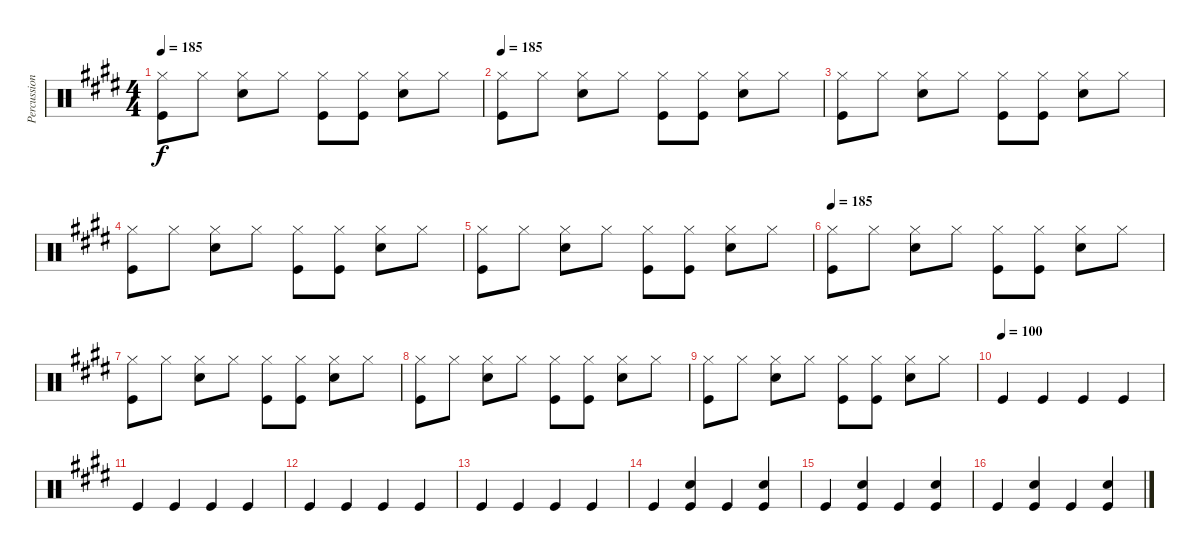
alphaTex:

\track ("Percussion" "Percussion") {instrument percussion}
\staff {score}
\articulation defaults
\ts (4 4)
\tempo 185
\clef neutral
\ks e
("Hi-Hat (closed)" "Kick (hit)").8{dy f} "Hi-Hat (closed)".8 ("Hi-Hat (closed)" "Snare (hit) 2").8 "Hi-Hat (closed)".8 ("Hi-Hat (closed)" "Kick (hit)").8 ("Hi-Hat (closed)" "Kick (hit)").8 ("Hi-Hat (closed)" "Snare (hit) 2").8 "Hi-Hat (closed)".8 |
\tempo 185
("Hi-Hat (closed)" "Kick (hit)").8 "Hi-Hat (closed)".8 ("Hi-Hat (closed)" "Snare (hit) 2").8 "Hi-Hat (closed)".8 ("Hi-Hat (closed)" "Kick (hit)").8 ("Hi-Hat (closed)" "Kick (hit)").8 ("Hi-Hat (closed)" "Snare (hit) 2").8 "Hi-Hat (closed)".8 |
("Hi-Hat (closed)" "Kick (hit)").8 "Hi-Hat (closed)".8 ("Hi-Hat (closed)" "Snare (hit) 2").8 "Hi-Hat (closed)".8 ("Hi-Hat (closed)" "Kick (hit)").8 ("Hi-Hat (closed)" "Kick (hit)").8 ("Hi-Hat (closed)" "Snare (hit) 2").8 "Hi-Hat (closed)".8 |
("Hi-Hat (closed)" "Kick (hit)").8 "Hi-Hat (closed)".8 ("Hi-Hat (closed)" "Snare (hit) 2").8 "Hi-Hat (closed)".8 ("Hi-Hat (closed)" "Kick (hit)").8 ("Hi-Hat (closed)" "Kick (hit)").8 ("Hi-Hat (closed)" "Snare (hit) 2").8 "Hi-Hat (closed)".8 |
("Hi-Hat (closed)" "Kick (hit)").8 "Hi-Hat (closed)".8 ("Hi-Hat (closed)" "Snare (hit) 2").8 "Hi-Hat (closed)".8 ("Hi-Hat (closed)" "Kick (hit)").8 ("Hi-Hat (closed)" "Kick (hit)").8 ("Hi-Hat (closed)" "Snare (hit) 2").8 "Hi-Hat (closed)".8 |
\tempo 185
("Hi-Hat (closed)" "Kick (hit)").8 "Hi-Hat (closed)".8 ("Hi-Hat (closed)" "Snare (hit) 2").8 "Hi-Hat (closed)".8 ("Hi-Hat (closed)" "Kick (hit)").8 ("Hi-Hat (closed)" "Kick (hit)").8 ("Hi-Hat (closed)" "Snare (hit) 2").8 "Hi-Hat (closed)".8 |
("Hi-Hat (closed)" "Kick (hit)").8 "Hi-Hat (closed)".8 ("Hi-Hat (closed)" "Snare (hit) 2").8 "Hi-Hat (closed)".8 ("Hi-Hat (closed)" "Kick (hit)").8 ("Hi-Hat (closed)" "Kick (hit)").8 ("Hi-Hat (closed)" "Snare (hit) 2").8 "Hi-Hat (closed)".8 |
("Hi-Hat (closed)" "Kick (hit)").8 "Hi-Hat (closed)".8 ("Hi-Hat (closed)" "Snare (hit) 2").8 "Hi-Hat (closed)".8 ("Hi-Hat (closed)" "Kick (hit)").8 ("Hi-Hat (closed)" "Kick (hit)").8 ("Hi-Hat (closed)" "Snare (hit) 2").8 "Hi-Hat (closed)".8 |
("Hi-Hat (closed)" "Kick (hit)").8 "Hi-Hat (closed)".8 ("Hi-Hat (closed)" "Snare (hit) 2").8 "Hi-Hat (closed)".8 ("Hi-Hat (closed)" "Kick (hit)").8 ("Hi-Hat (closed)" "Kick (hit)").8 ("Hi-Hat (closed)" "Snare (hit) 2").8 "Hi-Hat (closed)".8 |
\tempo (100)
"Kick (hit)".4 "Kick (hit)".4 "Kick (hit)".4 "Kick (hit)".4 |
"Kick (hit)".4 "Kick (hit)".4 "Kick (hit)".4 "Kick (hit)".4 |
"Kick (hit)".4 "Kick (hit)".4 "Kick (hit)".4 "Kick (hit)".4 |
"Kick (hit)".4 "Kick (hit)".4 "Kick (hit)".4 "Kick (hit)".4 |
"Kick (hit)".4 ("Snare (hit) 2" "Kick (hit)").4 "Kick (hit)".4 ("Snare (hit) 2" "Kick (hit)").4 |
"Kick (hit)".4 ("Snare (hit) 2" "Kick (hit)").4 "Kick (hit)".4 ("Snare (hit) 2" "Kick (hit)").4 |
"Kick (hit)".4 ("Snare (hit) 2" "Kick (hit)").4 "Kick (hit)".4 ("Snare (hit) 2" "Kick (hit)").4
